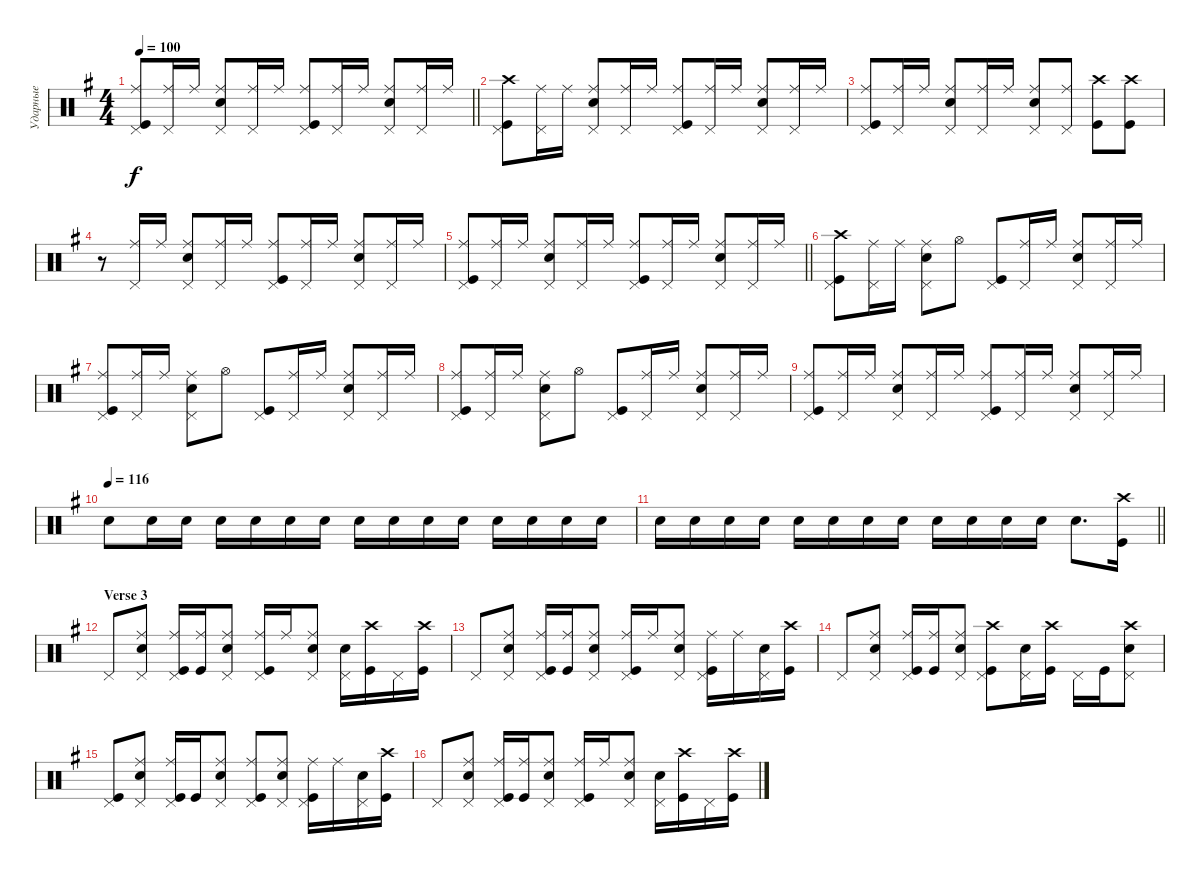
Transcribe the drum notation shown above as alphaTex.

\track ("Ударные" "Ударные") {instrument percussion}
\staff {score}
\articulation defaults
\ts (4 4)
\tempo 100
\clef neutral
\barLineRight lightlight
\ks eminor
("Kick (hit)" "Ride (middle)" "Pedal Hi-Hat (hit)").8{dy f} ("Ride (middle)" "Pedal Hi-Hat (hit)").16 "Ride (middle)".16 ("Snare (hit) 2" "Pedal Hi-Hat (hit)" "Ride (middle)").8 ("Ride (middle)" "Pedal Hi-Hat (hit)").16 "Ride (middle)".16 ("Ride (middle)" "Kick (hit)" "Pedal Hi-Hat (hit)").8 ("Ride (middle)" "Pedal Hi-Hat (hit)").16 "Ride (middle)".16 ("Ride (middle)" "Snare (hit) 2" "Pedal Hi-Hat (hit)").8 ("Ride (middle)" "Pedal Hi-Hat (hit)").16 "Ride (middle)".16 |
("Kick (hit)" "Crash high (hit)" "Pedal Hi-Hat (hit)").8 ("Ride (middle)" "Pedal Hi-Hat (hit)").16 "Ride (middle)".16 ("Snare (hit) 2" "Pedal Hi-Hat (hit)" "Ride (middle)").8 ("Ride (middle)" "Pedal Hi-Hat (hit)").16 "Ride (middle)".16 ("Ride (middle)" "Kick (hit)" "Pedal Hi-Hat (hit)").8 ("Ride (middle)" "Pedal Hi-Hat (hit)").16 "Ride (middle)".16 ("Ride (middle)" "Snare (hit) 2" "Pedal Hi-Hat (hit)").8 ("Ride (middle)" "Pedal Hi-Hat (hit)").16 "Ride (middle)".16 |
("Kick (hit)" "Ride (middle)" "Pedal Hi-Hat (hit)").8 ("Ride (middle)" "Pedal Hi-Hat (hit)").16 "Ride (middle)".16 ("Ride (middle)" "Snare (hit) 2" "Pedal Hi-Hat (hit)").8 ("Ride (middle)" "Pedal Hi-Hat (hit)").16 "Ride (middle)".16 ("Snare (hit) 2" "Ride (middle)" "Pedal Hi-Hat (hit)").8 ("Ride (middle)" "Pedal Hi-Hat (hit)").8 ("Kick (hit)" "Crash high (hit)").8 ("Crash high (hit)" "Kick (hit)").8 |
r.8 ("Ride (middle)" "Pedal Hi-Hat (hit)").16 "Ride (middle)".16 ("Snare (hit) 2" "Pedal Hi-Hat (hit)" "Ride (middle)").8 ("Ride (middle)" "Pedal Hi-Hat (hit)").16 "Ride (middle)".16 ("Ride (middle)" "Kick (hit)" "Pedal Hi-Hat (hit)").8 ("Ride (middle)" "Pedal Hi-Hat (hit)").16 "Ride (middle)".16 ("Ride (middle)" "Snare (hit) 2" "Pedal Hi-Hat (hit)").8 ("Ride (middle)" "Pedal Hi-Hat (hit)").16 "Ride (middle)".16 |
\barLineRight lightlight
("Kick (hit)" "Ride (middle)" "Pedal Hi-Hat (hit)").8 ("Ride (middle)" "Pedal Hi-Hat (hit)").16 "Ride (middle)".16 ("Snare (hit) 2" "Pedal Hi-Hat (hit)" "Ride (middle)").8 ("Ride (middle)" "Pedal Hi-Hat (hit)").16 "Ride (middle)".16 ("Ride (middle)" "Kick (hit)" "Pedal Hi-Hat (hit)").8 ("Ride (middle)" "Pedal Hi-Hat (hit)").16 "Ride (middle)".16 ("Ride (middle)" "Snare (hit) 2" "Pedal Hi-Hat (hit)").8 ("Ride (middle)" "Pedal Hi-Hat (hit)").16 "Ride (middle)".16 |
("Kick (hit)" "Crash high (hit)" "Pedal Hi-Hat (hit)").8 ("Ride (middle)" "Pedal Hi-Hat (hit)").16 "Ride (middle)".16 ("Snare (hit) 2" "Pedal Hi-Hat (hit)" "Ride (middle)").8 "Hi-Hat (open)".8 ("Pedal Hi-Hat (hit)" "Kick (hit)").8 ("Ride (middle)" "Pedal Hi-Hat (hit)").16 "Ride (middle)".16 ("Ride (middle)" "Snare (hit) 2" "Pedal Hi-Hat (hit)").8 ("Ride (middle)" "Pedal Hi-Hat (hit)").16 "Ride (middle)".16 |
("Kick (hit)" "Ride (middle)" "Pedal Hi-Hat (hit)").8 ("Ride (middle)" "Pedal Hi-Hat (hit)").16 "Ride (middle)".16 ("Snare (hit) 2" "Pedal Hi-Hat (hit)" "Ride (middle)").8 "Hi-Hat (open)".8 ("Pedal Hi-Hat (hit)" "Kick (hit)").8 ("Ride (middle)" "Pedal Hi-Hat (hit)").16 "Ride (middle)".16 ("Ride (middle)" "Snare (hit) 2" "Pedal Hi-Hat (hit)").8 ("Ride (middle)" "Pedal Hi-Hat (hit)").16 "Ride (middle)".16 |
("Kick (hit)" "Ride (middle)" "Pedal Hi-Hat (hit)").8 ("Ride (middle)" "Pedal Hi-Hat (hit)").16 "Ride (middle)".16 ("Snare (hit) 2" "Pedal Hi-Hat (hit)" "Ride (middle)").8 "Hi-Hat (open)".8 ("Pedal Hi-Hat (hit)" "Kick (hit)").8 ("Ride (middle)" "Pedal Hi-Hat (hit)").16 "Ride (middle)".16 ("Ride (middle)" "Snare (hit) 2" "Pedal Hi-Hat (hit)").8 ("Ride (middle)" "Pedal Hi-Hat (hit)").16 "Ride (middle)".16 |
("Kick (hit)" "Ride (middle)" "Pedal Hi-Hat (hit)").8 ("Ride (middle)" "Pedal Hi-Hat (hit)").16 "Ride (middle)".16 ("Snare (hit) 2" "Pedal Hi-Hat (hit)" "Ride (middle)").8 ("Ride (middle)" "Pedal Hi-Hat (hit)").16 "Ride (middle)".16 ("Ride (middle)" "Kick (hit)" "Pedal Hi-Hat (hit)").8 ("Ride (middle)" "Pedal Hi-Hat (hit)").16 "Ride (middle)".16 ("Ride (middle)" "Snare (hit) 2" "Pedal Hi-Hat (hit)").8 ("Ride (middle)" "Pedal Hi-Hat (hit)").16 "Ride (middle)".16 |
\tempo (116)
"Snare (hit) 2".8 "Snare (hit) 2".16 "Snare (hit) 2".16 "Snare (hit) 2".16 "Snare (hit) 2".16 "Snare (hit) 2".16 "Snare (hit) 2".16 "Snare (hit) 2".16 "Snare (hit) 2".16 "Snare (hit) 2".16 "Snare (hit) 2".16 "Snare (hit) 2".16 "Snare (hit) 2".16 "Snare (hit) 2".16 "Snare (hit) 2".16 |
\barLineRight lightlight "Snare (hit) 2".16 "Snare (hit) 2".16 "Snare (hit) 2".16 "Snare (hit) 2".16 "Snare (hit) 2".16 "Snare (hit) 2".16 "Snare (hit) 2".16 "Snare (hit) 2".16 "Snare (hit) 2".16 "Snare (hit) 2".16 "Snare (hit) 2".16 "Snare (hit) 2".16 "Snare (hit) 2".8{d}
("Kick (hit)" "Crash high (hit)").16 |
\section ("" "Verse 3")
"Pedal Hi-Hat (hit)".8 ("Snare (hit) 2" "Pedal Hi-Hat (hit)" "Ride (middle)").8 ("Kick (hit)" "Pedal Hi-Hat (hit)" "Ride (middle)").16 ("Kick (hit)" "Ride (middle)").16 ("Snare (hit) 2" "Pedal Hi-Hat (hit)" "Ride (middle)").8 ("Pedal Hi-Hat (hit)" "Kick (hit)" "Ride (middle)").16 "Ride (middle)".16 ("Snare (hit) 2" "Pedal Hi-Hat (hit)" "Ride (middle)").8 ("Snare (hit) 2" "Pedal Hi-Hat (hit)").16 ("Kick (hit)" "Crash high (hit)").16 "Pedal Hi-Hat (hit)".16 ("Kick (hit)" "Crash high (hit)").16 |
"Pedal Hi-Hat (hit)".8 ("Snare (hit) 2" "Pedal Hi-Hat (hit)" "Ride (middle)").8 ("Kick (hit)" "Pedal Hi-Hat (hit)" "Ride (middle)").16 ("Kick (hit)" "Ride (middle)").16 ("Snare (hit) 2" "Pedal Hi-Hat (hit)" "Ride (middle)").8 ("Kick (hit)" "Pedal Hi-Hat (hit)" "Ride (middle)").16 "Ride (middle)".16 ("Snare (hit) 2" "Pedal Hi-Hat (hit)" "Ride (middle)").8 ("Kick (hit)" "Ride (middle)" "Pedal Hi-Hat (hit)").16 "Ride (middle)".16 ("Snare (hit) 2" "Pedal Hi-Hat (hit)").16 ("Kick (hit)" "Crash high (hit)").16 |
"Pedal Hi-Hat (hit)".8 ("Snare (hit) 2" "Ride (middle)" "Pedal Hi-Hat (hit)").8 ("Kick (hit)" "Ride (middle)" "Pedal Hi-Hat (hit)").16 ("Kick (hit)" "Ride (middle)").16 ("Snare (hit) 2" "Ride (middle)" "Pedal Hi-Hat (hit)").8 ("Kick (hit)" "Crash high (hit)" "Pedal Hi-Hat (hit)").8 ("Snare (hit) 2" "Pedal Hi-Hat (hit)").16 ("Kick (hit)" "Crash high (hit)").16 "Pedal Hi-Hat (hit)".16 "Kick (hit)".16 ("Snare (hit) 2" "Crash high (hit)" "Pedal Hi-Hat (hit)").8 |
("Kick (hit)" "Pedal Hi-Hat (hit)").8 ("Snare (hit) 2" "Pedal Hi-Hat (hit)" "Ride (middle)").8 ("Kick (hit)" "Pedal Hi-Hat (hit)" "Ride (middle)").16 "Kick (hit)".16 ("Snare (hit) 2" "Pedal Hi-Hat (hit)" "Ride (middle)").8 ("Kick (hit)" "Pedal Hi-Hat (hit)" "Ride (middle)").8{bd 120} ("Snare (hit) 2" "Pedal Hi-Hat (hit)" "Ride (middle)").8 ("Kick (hit)" "Pedal Hi-Hat (hit)" "Ride (middle)").16{bd 120} "Ride (middle)".16 ("Snare (hit) 2" "Pedal Hi-Hat (hit)").16 ("Kick (hit)" "Crash high (hit)").16 |
"Pedal Hi-Hat (hit)".8 ("Snare (hit) 2" "Pedal Hi-Hat (hit)" "Ride (middle)").8 ("Kick (hit)" "Pedal Hi-Hat (hit)" "Ride (middle)").16 ("Kick (hit)" "Ride (middle)").16 ("Snare (hit) 2" "Pedal Hi-Hat (hit)" "Ride (middle)").8 ("Pedal Hi-Hat (hit)" "Kick (hit)" "Ride (middle)").16 "Ride (middle)".16 ("Snare (hit) 2" "Pedal Hi-Hat (hit)" "Ride (middle)").8 ("Snare (hit) 2" "Pedal Hi-Hat (hit)").16 ("Kick (hit)" "Crash high (hit)").16 "Pedal Hi-Hat (hit)".16 ("Kick (hit)" "Crash high (hit)").16
